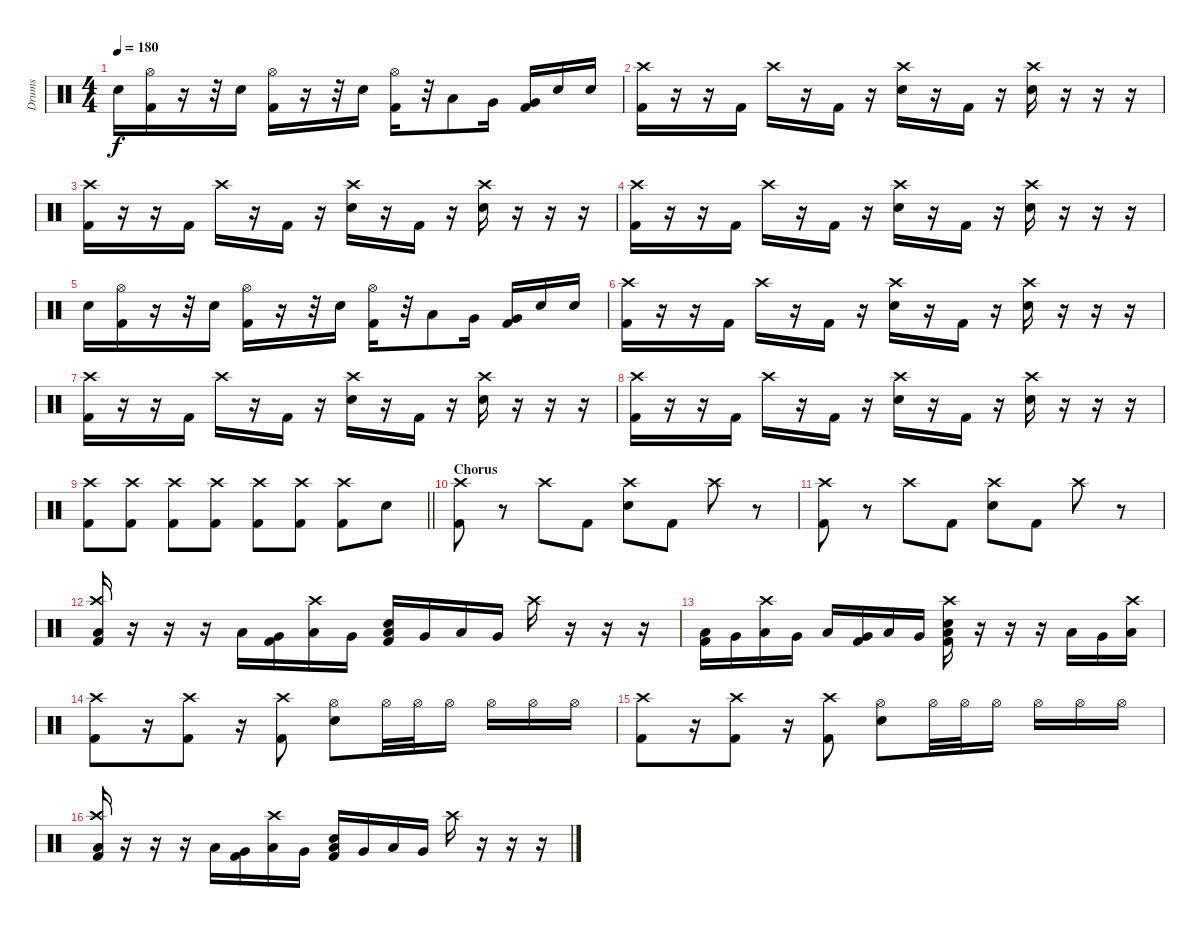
\track ("Drums" "Drums") {instrument percussion}
\staff {score}
\articulation defaults
\ts (4 4)
\tempo 180
\clef neutral
\ks c "Electric Snare (hit)".16{dy f}
("Hi-Hat (open)" "Kick (hit) 2").16 r.16 r.32 "Electric Snare (hit)".16 ("Hi-Hat (open)" "Kick (hit) 2").16 r.16 r.32 "Electric Snare (hit)".16 ("Hi-Hat (open)" "Kick (hit) 2").16 r.32 "Low Tom (hit)".8 "Very Low Tom (hit)".16 ("Very Low Tom (hit)" "Kick (hit) 2").16 "Electric Snare (hit)".16 "Electric Snare (hit)".16 |
("Crash high (hit)" "Kick (hit) 2").16 r.16 r.16 "Kick (hit) 2".16 "Crash high (hit)".16 r.16 "Kick (hit) 2".16 r.16 ("Crash high (hit)" "Electric Snare (hit)").16 r.16 "Kick (hit) 2".16 r.16 ("Crash high (hit)" "Electric Snare (hit)").16 r.16 r.16 r.16 |
("Crash high (hit)" "Kick (hit) 2").16 r.16 r.16 "Kick (hit) 2".16 "Crash high (hit)".16 r.16 "Kick (hit) 2".16 r.16 ("Crash high (hit)" "Electric Snare (hit)").16 r.16 "Kick (hit) 2".16 r.16 ("Crash high (hit)" "Electric Snare (hit)").16 r.16 r.16 r.16 |
("Crash high (hit)" "Kick (hit) 2").16 r.16 r.16 "Kick (hit) 2".16 "Crash high (hit)".16 r.16 "Kick (hit) 2".16 r.16 ("Crash high (hit)" "Electric Snare (hit)").16 r.16 "Kick (hit) 2".16 r.16 ("Crash high (hit)" "Electric Snare (hit)").16 r.16 r.16 r.16 |
"Electric Snare (hit)".16 ("Hi-Hat (open)" "Kick (hit) 2").16 r.16 r.32 "Electric Snare (hit)".16 ("Hi-Hat (open)" "Kick (hit) 2").16 r.16 r.32 "Electric Snare (hit)".16 ("Hi-Hat (open)" "Kick (hit) 2").16 r.32 "Low Tom (hit)".8 "Very Low Tom (hit)".16 ("Very Low Tom (hit)" "Kick (hit) 2").16 "Electric Snare (hit)".16 "Electric Snare (hit)".16 |
("Crash high (hit)" "Kick (hit) 2").16 r.16 r.16 "Kick (hit) 2".16 "Crash high (hit)".16 r.16 "Kick (hit) 2".16 r.16 ("Crash high (hit)" "Electric Snare (hit)").16 r.16 "Kick (hit) 2".16 r.16 ("Crash high (hit)" "Electric Snare (hit)").16 r.16 r.16 r.16 |
("Crash high (hit)" "Kick (hit) 2").16 r.16 r.16 "Kick (hit) 2".16 "Crash high (hit)".16 r.16 "Kick (hit) 2".16 r.16 ("Crash high (hit)" "Electric Snare (hit)").16 r.16 "Kick (hit) 2".16 r.16 ("Crash high (hit)" "Electric Snare (hit)").16 r.16 r.16 r.16 |
("Crash high (hit)" "Kick (hit) 2").16 r.16 r.16 "Kick (hit) 2".16 "Crash high (hit)".16 r.16 "Kick (hit) 2".16 r.16 ("Crash high (hit)" "Electric Snare (hit)").16 r.16 "Kick (hit) 2".16 r.16 ("Crash high (hit)" "Electric Snare (hit)").16 r.16 r.16 r.16 |
\barLineRight lightlight
("Crash high (hit)" "Kick (hit) 2").8 ("Crash high (hit)" "Kick (hit) 2").8 ("Crash high (hit)" "Kick (hit) 2").8 ("Crash high (hit)" "Kick (hit) 2").8 ("Crash high (hit)" "Kick (hit) 2").8 ("Crash high (hit)" "Kick (hit) 2").8 ("Crash high (hit)" "Kick (hit) 2").8 "Electric Snare (hit)".8 |
\section ("" "Chorus")
("Crash high (hit)" "Kick (hit) 2").8 r.8 "Crash high (hit)".8 "Kick (hit) 2".8 ("Crash high (hit)" "Electric Snare (hit)").8 "Kick (hit) 2".8 "Crash high (hit)".8 r.8 |
("Crash high (hit)" "Kick (hit) 2").8 r.8 "Crash high (hit)".8 "Kick (hit) 2".8 ("Crash high (hit)" "Electric Snare (hit)").8 "Kick (hit) 2".8 "Crash high (hit)".8 r.8 |
("Crash high (hit)" "Low Floor Tom (hit)" "Kick (hit) 2").16 r.16 r.16 r.16 "Low Floor Tom (hit)".16 ("Very Low Tom (hit)" "Kick (hit) 2").16 ("Crash high (hit)" "Low Floor Tom (hit)").16 "Very Low Tom (hit)".16 ("Electric Snare (hit)" "Low Floor Tom (hit)" "Kick (hit) 2").16 "Very Low Tom (hit)".16 "Low Floor Tom (hit)".16 "Very Low Tom (hit)".16 "Crash high (hit)".16 r.16 r.16 r.16 |
("Low Floor Tom (hit)" "Kick (hit) 2").16 "Very Low Tom (hit)".16 ("Crash high (hit)" "Low Floor Tom (hit)").16 "Very Low Tom (hit)".16 "Low Floor Tom (hit)".16 ("Very Low Tom (hit)" "Kick (hit) 2").16 "Low Floor Tom (hit)".16 "Very Low Tom (hit)".16 ("Crash high (hit)" "Electric Snare (hit)" "Low Floor Tom (hit)" "Kick (hit) 2").16 r.16 r.16 r.16 "Low Floor Tom (hit)".16 "Very Low Tom (hit)".16 ("Crash high (hit)" "Low Floor Tom (hit)").16 |
("Crash high (hit)" "Kick (hit) 2").8 r.16 ("Crash high (hit)" "Kick (hit) 2").8 r.16 ("Crash high (hit)" "Kick (hit) 2").8 ("Hi-Hat (open)" "Electric Snare (hit)").8 "Hi-Hat (open)".32 "Hi-Hat (open)".32 "Hi-Hat (open)".16 "Hi-Hat (open)".16 "Hi-Hat (open)".16 "Hi-Hat (open)".16 |
("Crash high (hit)" "Kick (hit) 2").8 r.16 ("Crash high (hit)" "Kick (hit) 2").8 r.16 ("Crash high (hit)" "Kick (hit) 2").8 ("Hi-Hat (open)" "Electric Snare (hit)").8 "Hi-Hat (open)".32 "Hi-Hat (open)".32 "Hi-Hat (open)".16 "Hi-Hat (open)".16 "Hi-Hat (open)".16 "Hi-Hat (open)".16 |
("Crash high (hit)" "Low Floor Tom (hit)" "Kick (hit) 2").16 r.16 r.16 r.16 "Low Floor Tom (hit)".16 ("Very Low Tom (hit)" "Kick (hit) 2").16 ("Crash high (hit)" "Low Floor Tom (hit)").16 "Very Low Tom (hit)".16 ("Electric Snare (hit)" "Low Floor Tom (hit)" "Kick (hit) 2").16 "Very Low Tom (hit)".16 "Low Floor Tom (hit)".16 "Very Low Tom (hit)".16 "Crash high (hit)".16 r.16 r.16 r.16
